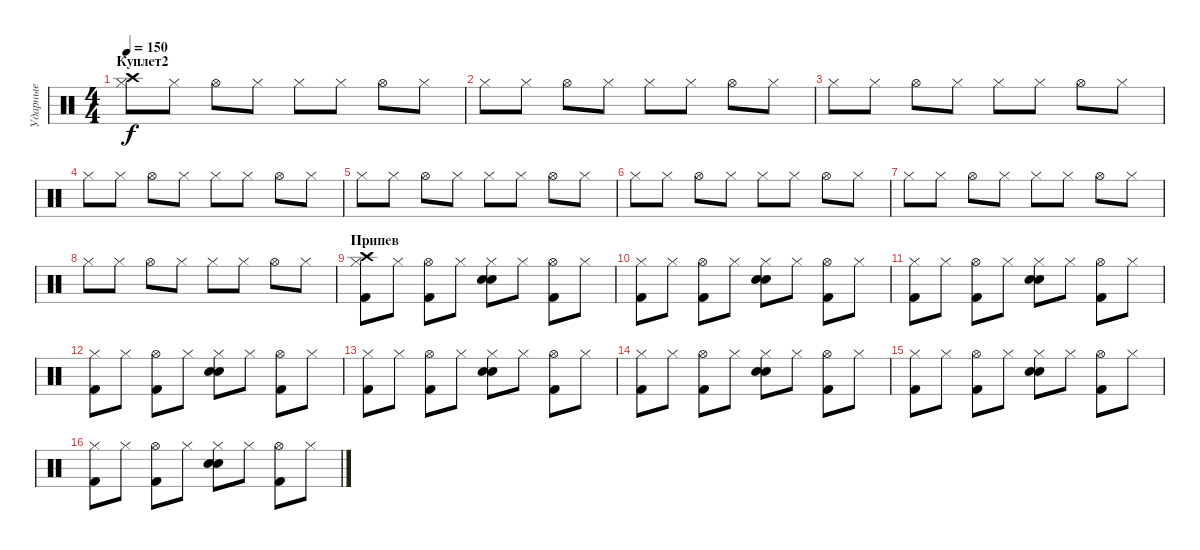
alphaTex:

\track ("Ударные" "Ударные") {instrument percussion}
\staff {score}
\articulation defaults
\ts (4 4)
\section ("" "Куплет2")
\tempo 150
\clef neutral
\ks c
("Hi-Hat (closed)" "Crash high (hit)").8{dy f} "Hi-Hat (closed)".8 "Hi-Hat (open)".8 "Hi-Hat (closed)".8 "Hi-Hat (closed)".8 "Hi-Hat (closed)".8 "Hi-Hat (open)".8 "Hi-Hat (closed)".8 |
"Hi-Hat (closed)".8 "Hi-Hat (closed)".8 "Hi-Hat (open)".8 "Hi-Hat (closed)".8 "Hi-Hat (closed)".8 "Hi-Hat (closed)".8 "Hi-Hat (open)".8 "Hi-Hat (closed)".8 |
"Hi-Hat (closed)".8 "Hi-Hat (closed)".8 "Hi-Hat (open)".8 "Hi-Hat (closed)".8 "Hi-Hat (closed)".8 "Hi-Hat (closed)".8 "Hi-Hat (open)".8 "Hi-Hat (closed)".8 |
"Hi-Hat (closed)".8 "Hi-Hat (closed)".8 "Hi-Hat (open)".8 "Hi-Hat (closed)".8 "Hi-Hat (closed)".8 "Hi-Hat (closed)".8 "Hi-Hat (open)".8 "Hi-Hat (closed)".8 |
"Hi-Hat (closed)".8 "Hi-Hat (closed)".8 "Hi-Hat (open)".8 "Hi-Hat (closed)".8 "Hi-Hat (closed)".8 "Hi-Hat (closed)".8 "Hi-Hat (open)".8 "Hi-Hat (closed)".8 |
"Hi-Hat (closed)".8 "Hi-Hat (closed)".8 "Hi-Hat (open)".8 "Hi-Hat (closed)".8 "Hi-Hat (closed)".8 "Hi-Hat (closed)".8 "Hi-Hat (open)".8 "Hi-Hat (closed)".8 |
"Hi-Hat (closed)".8 "Hi-Hat (closed)".8 "Hi-Hat (open)".8 "Hi-Hat (closed)".8 "Hi-Hat (closed)".8 "Hi-Hat (closed)".8 "Hi-Hat (open)".8 "Hi-Hat (closed)".8 |
"Hi-Hat (closed)".8 "Hi-Hat (closed)".8 "Hi-Hat (open)".8 "Hi-Hat (closed)".8 "Hi-Hat (closed)".8 "Hi-Hat (closed)".8 "Hi-Hat (open)".8 "Hi-Hat (closed)".8 |
\section ("" "Припев")
("Hi-Hat (closed)" "Crash high (hit)" "Kick (hit) 2").8 "Hi-Hat (closed)".8 ("Hi-Hat (open)" "Kick (hit) 2").8 "Hi-Hat (closed)".8 ("Hi-Hat (closed)" "Electric Snare (hit)" "Snare (hit) 2").8 "Hi-Hat (closed)".8 ("Hi-Hat (open)" "Kick (hit) 2").8 "Hi-Hat (closed)".8 |
("Hi-Hat (closed)" "Kick (hit) 2").8 "Hi-Hat (closed)".8 ("Hi-Hat (open)" "Kick (hit) 2").8 "Hi-Hat (closed)".8 ("Hi-Hat (closed)" "Snare (hit) 2" "Electric Snare (hit)").8 "Hi-Hat (closed)".8 ("Hi-Hat (open)" "Kick (hit) 2").8 "Hi-Hat (closed)".8 |
("Hi-Hat (closed)" "Kick (hit) 2").8 "Hi-Hat (closed)".8 ("Hi-Hat (open)" "Kick (hit) 2").8 "Hi-Hat (closed)".8 ("Hi-Hat (closed)" "Electric Snare (hit)" "Snare (hit) 2").8 "Hi-Hat (closed)".8 ("Hi-Hat (open)" "Kick (hit) 2").8 "Hi-Hat (closed)".8 |
("Hi-Hat (closed)" "Kick (hit) 2").8 "Hi-Hat (closed)".8 ("Hi-Hat (open)" "Kick (hit) 2").8 "Hi-Hat (closed)".8 ("Hi-Hat (closed)" "Electric Snare (hit)" "Snare (hit) 2").8 "Hi-Hat (closed)".8 ("Hi-Hat (open)" "Kick (hit) 2").8 "Hi-Hat (closed)".8 |
("Hi-Hat (closed)" "Kick (hit) 2").8 "Hi-Hat (closed)".8 ("Hi-Hat (open)" "Kick (hit) 2").8 "Hi-Hat (closed)".8 ("Hi-Hat (closed)" "Snare (hit) 2" "Electric Snare (hit)").8 "Hi-Hat (closed)".8 ("Hi-Hat (open)" "Kick (hit) 2").8 "Hi-Hat (closed)".8 |
("Hi-Hat (closed)" "Kick (hit) 2").8 "Hi-Hat (closed)".8 ("Hi-Hat (open)" "Kick (hit) 2").8 "Hi-Hat (closed)".8 ("Hi-Hat (closed)" "Snare (hit) 2" "Electric Snare (hit)").8 "Hi-Hat (closed)".8 ("Hi-Hat (open)" "Kick (hit) 2").8 "Hi-Hat (closed)".8 |
("Hi-Hat (closed)" "Kick (hit) 2").8 "Hi-Hat (closed)".8 ("Hi-Hat (open)" "Kick (hit) 2").8 "Hi-Hat (closed)".8 ("Hi-Hat (closed)" "Snare (hit) 2" "Electric Snare (hit)").8 "Hi-Hat (closed)".8 ("Hi-Hat (open)" "Kick (hit) 2").8 "Hi-Hat (closed)".8 |
("Hi-Hat (closed)" "Kick (hit) 2").8 "Hi-Hat (closed)".8 ("Hi-Hat (open)" "Kick (hit) 2").8 "Hi-Hat (closed)".8 ("Hi-Hat (closed)" "Snare (hit) 2" "Electric Snare (hit)").8 "Hi-Hat (closed)".8 ("Hi-Hat (open)" "Kick (hit) 2").8 "Hi-Hat (closed)".8
